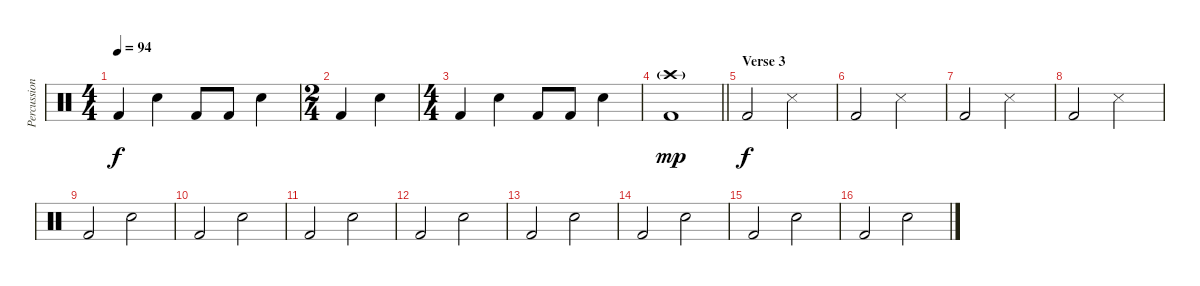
\track ("Percussion" "Percussion") {instrument percussion}
\staff {score}
\articulation defaults
\ts (4 4)
\tempo 94
\clef neutral
\ks c "Kick (hit) 2".4{dy f} "Snare (hit) 2".4 "Kick (hit) 2".8 "Kick (hit) 2".8 "Snare (hit) 2".4
|
\ts (2 4)
"Kick (hit) 2".4 "Snare (hit) 2".4 |
\ts (4 4)
"Kick (hit) 2".4 "Snare (hit) 2".4 "Kick (hit) 2".8 "Kick (hit) 2".8 "Snare (hit) 2".4 |
\barLineRight lightlight
("Crash high (hit)"{g} "Kick (hit) 2").1{dy mp} |
\section ("" "Verse 3")
"Kick (hit) 2".2{dy f} "Snare (side stick) 3".2 |
"Kick (hit) 2".2 "Snare (side stick) 3".2 |
"Kick (hit) 2".2 "Snare (side stick) 3".2 |
"Kick (hit) 2".2 "Snare (side stick) 3".2 |
"Kick (hit) 2".2 "Snare (hit) 2".2 |
"Kick (hit) 2".2 "Snare (hit) 2".2 |
"Kick (hit) 2".2 "Snare (hit) 2".2 |
"Kick (hit) 2".2 "Snare (hit) 2".2 |
"Kick (hit) 2".2 "Snare (hit) 2".2 |
"Kick (hit) 2".2 "Snare (hit) 2".2 |
"Kick (hit) 2".2 "Snare (hit) 2".2 |
"Kick (hit) 2".2 "Snare (hit) 2".2
